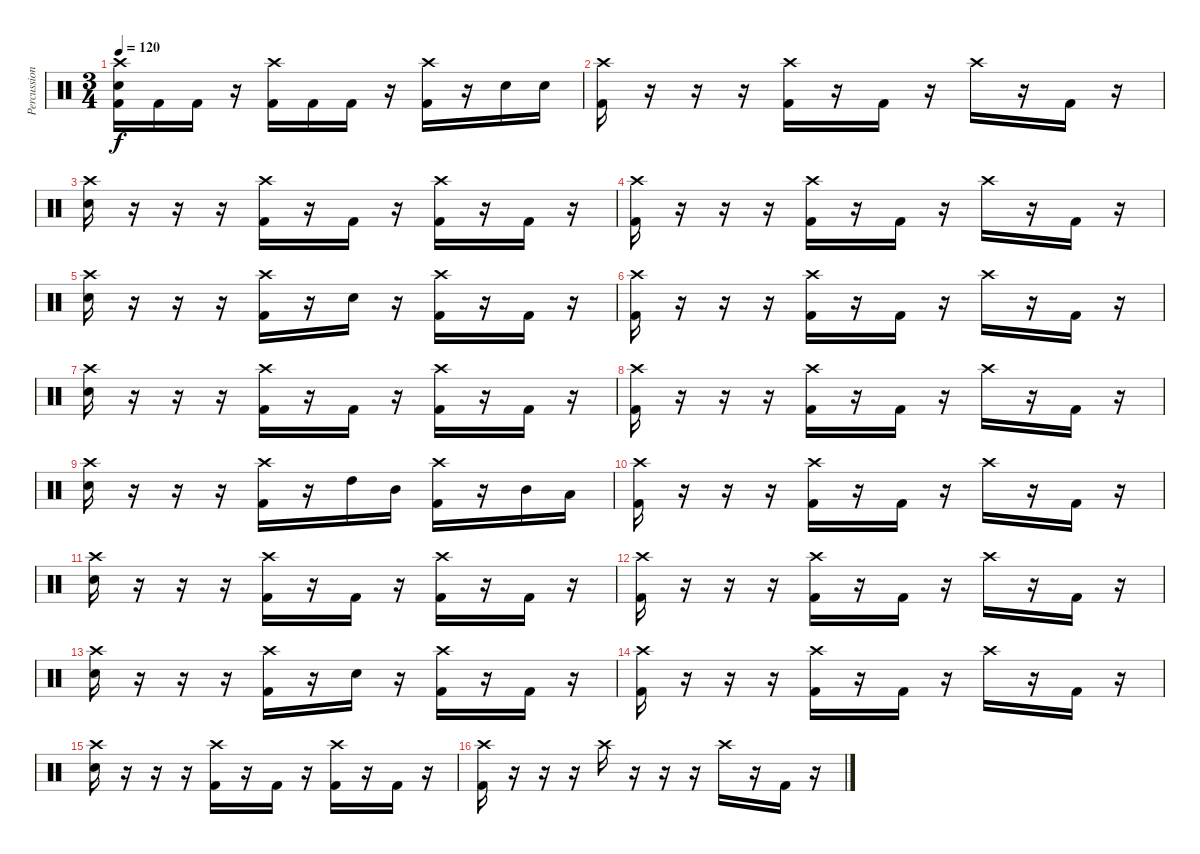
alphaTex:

\track ("Percussion" "Percussion") {instrument percussion}
\staff {score}
\articulation defaults
\ts (3 4)
\tempo 120
\clef neutral
\ks c
("Kick (hit) 2" "Electric Snare (hit)" "Crash high (hit)").16{dy f} "Kick (hit) 2".16 "Kick (hit) 2".16 r.16 ("Kick (hit) 2" "Crash high (hit)").16 "Kick (hit) 2".16 "Kick (hit) 2".16 r.16 ("Kick (hit) 2" "Crash high (hit)").16 r.16 "Electric Snare (hit)".16 "Electric Snare (hit)".16 |
("Kick (hit) 2" "Crash high (hit)").16 r.16 r.16 r.16 ("Kick (hit) 2" "Crash high (hit)").16 r.16 "Kick (hit) 2".16 r.16 "Crash high (hit)".16 r.16 "Kick (hit) 2".16 r.16 |
("Electric Snare (hit)" "Crash high (hit)").16 r.16 r.16 r.16 ("Kick (hit) 2" "Crash high (hit)").16 r.16 "Kick (hit) 2".16 r.16 ("Kick (hit) 2" "Crash high (hit)").16 r.16 "Kick (hit) 2".16 r.16 |
("Kick (hit) 2" "Crash high (hit)").16 r.16 r.16 r.16 ("Kick (hit) 2" "Crash high (hit)").16 r.16 "Kick (hit) 2".16 r.16 "Crash high (hit)".16 r.16 "Kick (hit) 2".16 r.16 |
("Electric Snare (hit)" "Crash high (hit)").16 r.16 r.16 r.16 ("Kick (hit) 2" "Crash high (hit)").16 r.16 "Electric Snare (hit)".16 r.16 ("Kick (hit) 2" "Crash high (hit)").16 r.16 "Kick (hit) 2".16 r.16 |
("Kick (hit) 2" "Crash high (hit)").16 r.16 r.16 r.16 ("Kick (hit) 2" "Crash high (hit)").16 r.16 "Kick (hit) 2".16 r.16 "Crash high (hit)".16 r.16 "Kick (hit) 2".16 r.16 |
("Electric Snare (hit)" "Crash high (hit)").16 r.16 r.16 r.16 ("Kick (hit) 2" "Crash high (hit)").16 r.16 "Kick (hit) 2".16 r.16 ("Kick (hit) 2" "Crash high (hit)").16 r.16 "Kick (hit) 2".16 r.16 |
("Kick (hit) 2" "Crash high (hit)").16 r.16 r.16 r.16 ("Kick (hit) 2" "Crash high (hit)").16 r.16 "Kick (hit) 2".16 r.16 "Crash high (hit)".16 r.16 "Kick (hit) 2".16 r.16 |
("Electric Snare (hit)" "Crash high (hit)").16 r.16 r.16 r.16 ("Kick (hit) 2" "Crash high (hit)").16 r.16 "High Tom (hit)".16 "Mid Tom (hit)".16 ("Kick (hit) 2" "Crash high (hit)").16 r.16 "Mid Tom (hit)".16 "Low Tom (hit)".16 |
("Kick (hit) 2" "Crash high (hit)").16 r.16 r.16 r.16 ("Kick (hit) 2" "Crash high (hit)").16 r.16 "Kick (hit) 2".16 r.16 "Crash high (hit)".16 r.16 "Kick (hit) 2".16 r.16 |
("Electric Snare (hit)" "Crash high (hit)").16 r.16 r.16 r.16 ("Kick (hit) 2" "Crash high (hit)").16 r.16 "Kick (hit) 2".16 r.16 ("Kick (hit) 2" "Crash high (hit)").16 r.16 "Kick (hit) 2".16 r.16 |
("Kick (hit) 2" "Crash high (hit)").16 r.16 r.16 r.16 ("Kick (hit) 2" "Crash high (hit)").16 r.16 "Kick (hit) 2".16 r.16 "Crash high (hit)".16 r.16 "Kick (hit) 2".16 r.16 |
("Electric Snare (hit)" "Crash high (hit)").16 r.16 r.16 r.16 ("Kick (hit) 2" "Crash high (hit)").16 r.16 "Electric Snare (hit)".16 r.16 ("Kick (hit) 2" "Crash high (hit)").16 r.16 "Kick (hit) 2".16 r.16 |
("Kick (hit) 2" "Crash high (hit)").16 r.16 r.16 r.16 ("Kick (hit) 2" "Crash high (hit)").16 r.16 "Kick (hit) 2".16 r.16 "Crash high (hit)".16 r.16 "Kick (hit) 2".16 r.16 |
("Electric Snare (hit)" "Crash high (hit)").16 r.16 r.16 r.16 ("Kick (hit) 2" "Crash high (hit)").16 r.16 "Kick (hit) 2".16 r.16 ("Kick (hit) 2" "Crash high (hit)").16 r.16 "Kick (hit) 2".16 r.16 |
("Kick (hit) 2" "Crash high (hit)").16 r.16 r.16 r.16 "Crash high (hit)".16 r.16 r.16 r.16 "Crash high (hit)".16 r.16 "Kick (hit) 2".16 r.16
